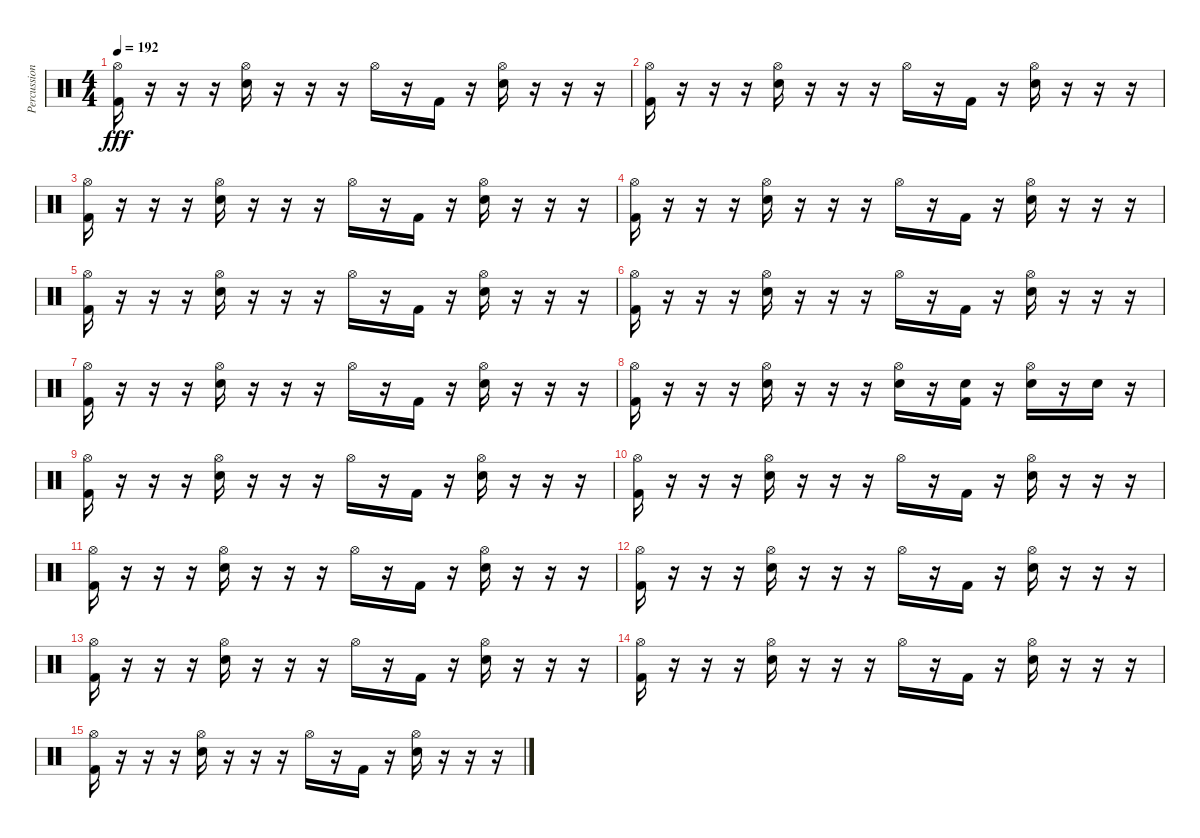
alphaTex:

\track ("Percussion" "Percussion") {instrument percussion}
\staff {score}
\articulation defaults
\ts (4 4)
\tempo 192
\clef neutral
\ks c
("Hi-Hat (open)" "Kick (hit) 2").16{dy fff} r.16 r.16 r.16 ("Hi-Hat (open)" "Electric Snare (hit)").16 r.16 r.16 r.16 "Hi-Hat (open)".16 r.16 "Kick (hit) 2".16 r.16 ("Hi-Hat (open)" "Electric Snare (hit)").16 r.16 r.16 r.16 |
("Hi-Hat (open)" "Kick (hit) 2").16 r.16 r.16 r.16 ("Hi-Hat (open)" "Electric Snare (hit)").16 r.16 r.16 r.16 "Hi-Hat (open)".16 r.16 "Kick (hit) 2".16 r.16 ("Hi-Hat (open)" "Electric Snare (hit)").16 r.16 r.16 r.16 |
("Hi-Hat (open)" "Kick (hit) 2").16 r.16 r.16 r.16 ("Hi-Hat (open)" "Electric Snare (hit)").16 r.16 r.16 r.16 "Hi-Hat (open)".16 r.16 "Kick (hit) 2".16 r.16 ("Hi-Hat (open)" "Electric Snare (hit)").16 r.16 r.16 r.16 |
("Hi-Hat (open)" "Kick (hit) 2").16 r.16 r.16 r.16 ("Hi-Hat (open)" "Electric Snare (hit)").16 r.16 r.16 r.16 "Hi-Hat (open)".16 r.16 "Kick (hit) 2".16 r.16 ("Hi-Hat (open)" "Electric Snare (hit)").16 r.16 r.16 r.16 |
("Hi-Hat (open)" "Kick (hit) 2").16 r.16 r.16 r.16 ("Hi-Hat (open)" "Electric Snare (hit)").16 r.16 r.16 r.16 "Hi-Hat (open)".16 r.16 "Kick (hit) 2".16 r.16 ("Hi-Hat (open)" "Electric Snare (hit)").16 r.16 r.16 r.16 |
("Hi-Hat (open)" "Kick (hit) 2").16 r.16 r.16 r.16 ("Hi-Hat (open)" "Electric Snare (hit)").16 r.16 r.16 r.16 "Hi-Hat (open)".16 r.16 "Kick (hit) 2".16 r.16 ("Hi-Hat (open)" "Electric Snare (hit)").16 r.16 r.16 r.16 |
("Hi-Hat (open)" "Kick (hit) 2").16 r.16 r.16 r.16 ("Hi-Hat (open)" "Electric Snare (hit)").16 r.16 r.16 r.16 "Hi-Hat (open)".16 r.16 "Kick (hit) 2".16 r.16 ("Hi-Hat (open)" "Electric Snare (hit)").16 r.16 r.16 r.16 |
("Hi-Hat (open)" "Kick (hit) 2").16 r.16 r.16 r.16 ("Hi-Hat (open)" "Electric Snare (hit)").16 r.16 r.16 r.16 ("Hi-Hat (open)" "Electric Snare (hit)").16 r.16 ("Electric Snare (hit)" "Kick (hit) 2").16 r.16 ("Hi-Hat (open)" "Electric Snare (hit)").16 r.16 "Electric Snare (hit)".16 r.16 |
("Hi-Hat (open)" "Kick (hit) 2").16 r.16 r.16 r.16 ("Hi-Hat (open)" "Electric Snare (hit)").16 r.16 r.16 r.16 "Hi-Hat (open)".16 r.16 "Kick (hit) 2".16 r.16 ("Hi-Hat (open)" "Electric Snare (hit)").16 r.16 r.16 r.16 |
("Hi-Hat (open)" "Kick (hit) 2").16 r.16 r.16 r.16 ("Hi-Hat (open)" "Electric Snare (hit)").16 r.16 r.16 r.16 "Hi-Hat (open)".16 r.16 "Kick (hit) 2".16 r.16 ("Hi-Hat (open)" "Electric Snare (hit)").16 r.16 r.16 r.16 |
("Hi-Hat (open)" "Kick (hit) 2").16 r.16 r.16 r.16 ("Hi-Hat (open)" "Electric Snare (hit)").16 r.16 r.16 r.16 "Hi-Hat (open)".16 r.16 "Kick (hit) 2".16 r.16 ("Hi-Hat (open)" "Electric Snare (hit)").16 r.16 r.16 r.16 |
("Hi-Hat (open)" "Kick (hit) 2").16 r.16 r.16 r.16 ("Hi-Hat (open)" "Electric Snare (hit)").16 r.16 r.16 r.16 "Hi-Hat (open)".16 r.16 "Kick (hit) 2".16 r.16 ("Hi-Hat (open)" "Electric Snare (hit)").16 r.16 r.16 r.16 |
("Hi-Hat (open)" "Kick (hit) 2").16 r.16 r.16 r.16 ("Hi-Hat (open)" "Electric Snare (hit)").16 r.16 r.16 r.16 "Hi-Hat (open)".16 r.16 "Kick (hit) 2".16 r.16 ("Hi-Hat (open)" "Electric Snare (hit)").16 r.16 r.16 r.16 |
("Hi-Hat (open)" "Kick (hit) 2").16 r.16 r.16 r.16 ("Hi-Hat (open)" "Electric Snare (hit)").16 r.16 r.16 r.16 "Hi-Hat (open)".16 r.16 "Kick (hit) 2".16 r.16 ("Hi-Hat (open)" "Electric Snare (hit)").16 r.16 r.16 r.16 |
("Hi-Hat (open)" "Kick (hit) 2").16 r.16 r.16 r.16 ("Hi-Hat (open)" "Electric Snare (hit)").16 r.16 r.16 r.16 "Hi-Hat (open)".16 r.16 "Kick (hit) 2".16 r.16 ("Hi-Hat (open)" "Electric Snare (hit)").16 r.16 r.16 r.16
